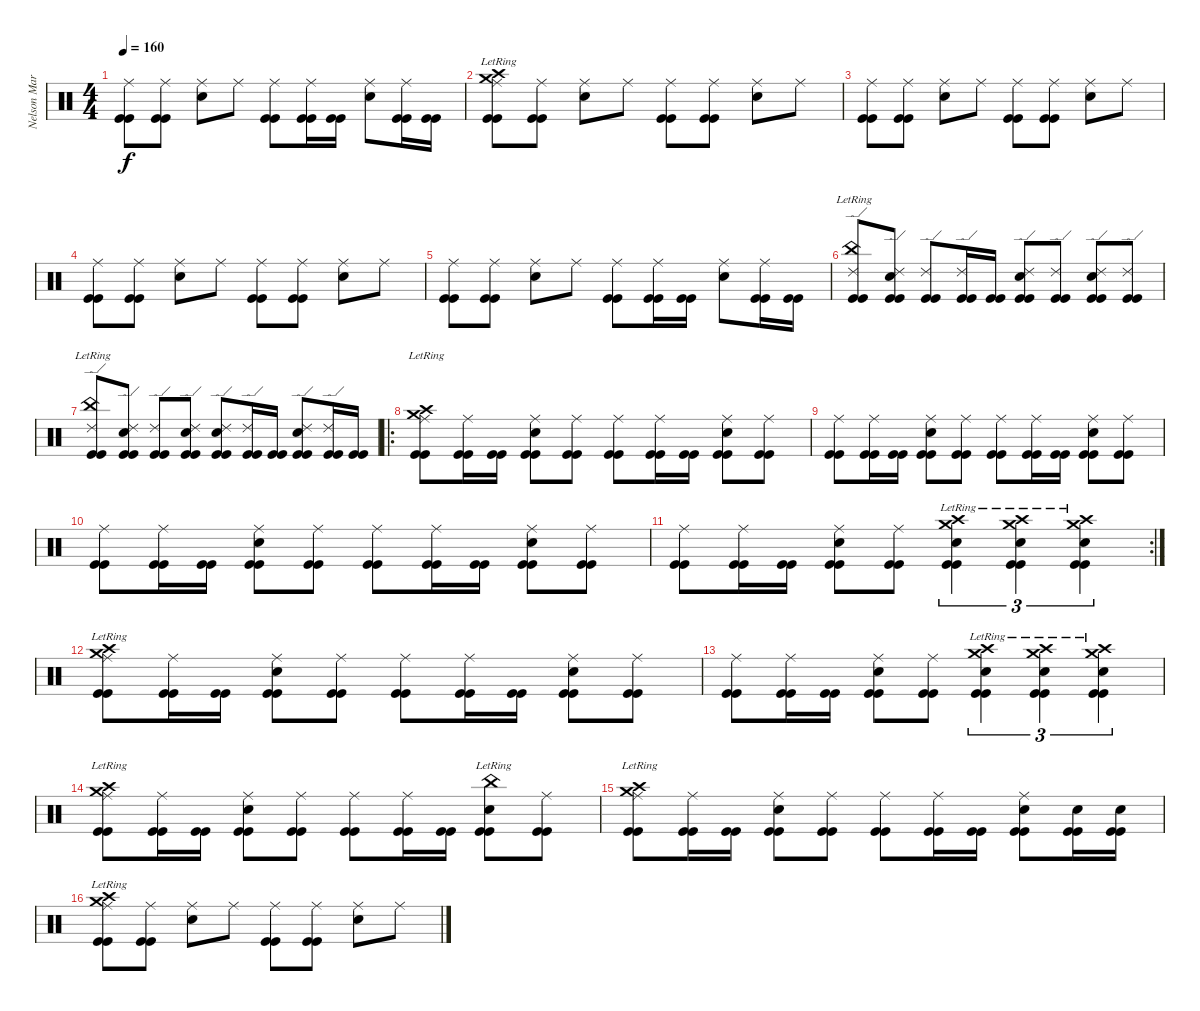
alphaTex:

\track ("Nelson Maria" "Nelson Mar") {instrument percussion}
\staff {score}
\articulation defaults
\ts (4 4)
\tempo 160
\clef neutral
\ks c
("Ride (middle)" "Kick (hit)" "Kick (hit)").8{dy f} ("Ride (middle)" "Kick (hit)" "Kick (hit)").8 ("Snare (hit) 2" "Ride (middle)").8 "Ride (middle)".8 ("Ride (middle)" "Kick (hit)" "Kick (hit)").8 ("Ride (middle)" "Kick (hit)" "Kick (hit)").16 ("Kick (hit)" "Kick (hit)").16 ("Snare (hit) 2" "Ride (middle)").8 ("Ride (middle)" "Kick (hit)" "Kick (hit)").16 ("Kick (hit)" "Kick (hit)").16 |
("Crash high (hit)"{lr} "Crash medium (hit)"{lr} "Ride (middle)" "Kick (hit)" "Kick (hit)").8 ("Ride (middle)" "Kick (hit)" "Kick (hit)").8 ("Snare (hit) 2" "Ride (middle)").8 "Ride (middle)".8 ("Ride (middle)" "Kick (hit)" "Kick (hit)").8 ("Ride (middle)" "Kick (hit)" "Kick (hit)").8 ("Snare (hit) 2" "Ride (middle)").8 "Ride (middle)".8 |
("Ride (middle)" "Kick (hit)" "Kick (hit)").8 ("Ride (middle)" "Kick (hit)" "Kick (hit)").8 ("Snare (hit) 2" "Ride (middle)").8 "Ride (middle)".8 ("Ride (middle)" "Kick (hit)" "Kick (hit)").8 ("Ride (middle)" "Kick (hit)" "Kick (hit)").8 ("Snare (hit) 2" "Ride (middle)").8 "Ride (middle)".8 |
("Ride (middle)" "Kick (hit)" "Kick (hit)").8 ("Ride (middle)" "Kick (hit)" "Kick (hit)").8 ("Snare (hit) 2" "Ride (middle)").8 "Ride (middle)".8 ("Ride (middle)" "Kick (hit)" "Kick (hit)").8 ("Ride (middle)" "Kick (hit)" "Kick (hit)").8 ("Snare (hit) 2" "Ride (middle)").8 "Ride (middle)".8 |
("Ride (middle)" "Kick (hit)" "Kick (hit)").8 ("Ride (middle)" "Kick (hit)" "Kick (hit)").8 ("Snare (hit) 2" "Ride (middle)").8 "Ride (middle)".8 ("Ride (middle)" "Kick (hit)" "Kick (hit)").8 ("Ride (middle)" "Kick (hit)" "Kick (hit)").16 ("Kick (hit)" "Kick (hit)").16 ("Snare (hit) 2" "Ride (middle)").8 ("Ride (middle)" "Kick (hit)" "Kick (hit)").16 ("Kick (hit)" "Kick (hit)").16 |
("China (hit)"{lr} "Ride (edge) 2" "Kick (hit)" "Kick (hit)").8 ("Snare (hit) 2" "Ride (edge) 2" "Kick (hit)" "Kick (hit)").8 ("Ride (edge) 2" "Kick (hit)" "Kick (hit)").8 ("Ride (edge) 2" "Kick (hit)" "Kick (hit)").16 ("Kick (hit)" "Kick (hit)").16 ("Snare (hit) 2" "Ride (edge) 2" "Kick (hit)" "Kick (hit)").8 ("Ride (edge) 2" "Kick (hit)" "Kick (hit)").8 ("Snare (hit) 2" "Ride (edge) 2" "Kick (hit)" "Kick (hit)").8 ("Ride (edge) 2" "Kick (hit)" "Kick (hit)").8 |
("China (hit)"{lr} "Ride (edge) 2" "Kick (hit)" "Kick (hit)").8 ("Snare (hit) 2" "Ride (edge) 2" "Kick (hit)" "Kick (hit)").8 ("Ride (edge) 2" "Kick (hit)" "Kick (hit)").8 ("Snare (hit) 2" "Ride (edge) 2" "Kick (hit)" "Kick (hit)").8 ("Snare (hit) 2" "Ride (edge) 2" "Kick (hit)" "Kick (hit)").8 ("Ride (edge) 2" "Kick (hit)" "Kick (hit)").16 ("Kick (hit)" "Kick (hit)").16 ("Snare (hit) 2" "Ride (edge) 2" "Kick (hit)" "Kick (hit)").8 ("Ride (edge) 2" "Kick (hit)" "Kick (hit)").16 ("Kick (hit)" "Kick (hit)").16 |
\ro
("Crash high (hit)"{lr} "Crash medium (hit)"{lr} "Ride (middle)" "Kick (hit)" "Kick (hit)").8 ("Ride (middle)" "Kick (hit)" "Kick (hit)").16 ("Kick (hit)" "Kick (hit)").16 ("Snare (hit) 2" "Ride (middle)" "Kick (hit)" "Kick (hit)").8 ("Ride (middle)" "Kick (hit)" "Kick (hit)").8 ("Ride (middle)" "Kick (hit)" "Kick (hit)").8 ("Ride (middle)" "Kick (hit)" "Kick (hit)").16 ("Kick (hit)" "Kick (hit)").16 ("Snare (hit) 2" "Ride (middle)" "Kick (hit)" "Kick (hit)").8 ("Ride (middle)" "Kick (hit)" "Kick (hit)").8 |
("Ride (middle)" "Kick (hit)" "Kick (hit)").8 ("Ride (middle)" "Kick (hit)" "Kick (hit)").16 ("Kick (hit)" "Kick (hit)").16 ("Snare (hit) 2" "Ride (middle)" "Kick (hit)" "Kick (hit)").8 ("Ride (middle)" "Kick (hit)" "Kick (hit)").8 ("Ride (middle)" "Kick (hit)" "Kick (hit)").8 ("Ride (middle)" "Kick (hit)" "Kick (hit)").16 ("Kick (hit)" "Kick (hit)").16 ("Snare (hit) 2" "Ride (middle)" "Kick (hit)" "Kick (hit)").8 ("Ride (middle)" "Kick (hit)" "Kick (hit)").8 |
("Ride (middle)" "Kick (hit)" "Kick (hit)").8 ("Ride (middle)" "Kick (hit)" "Kick (hit)").16 ("Kick (hit)" "Kick (hit)").16 ("Snare (hit) 2" "Ride (middle)" "Kick (hit)" "Kick (hit)").8 ("Ride (middle)" "Kick (hit)" "Kick (hit)").8 ("Ride (middle)" "Kick (hit)" "Kick (hit)").8 ("Ride (middle)" "Kick (hit)" "Kick (hit)").16 ("Kick (hit)" "Kick (hit)").16 ("Snare (hit) 2" "Ride (middle)" "Kick (hit)" "Kick (hit)").8 ("Ride (middle)" "Kick (hit)" "Kick (hit)").8 |
\rc 2
("Ride (middle)" "Kick (hit)" "Kick (hit)").8 ("Ride (middle)" "Kick (hit)" "Kick (hit)").16 ("Kick (hit)" "Kick (hit)").16 ("Snare (hit) 2" "Ride (middle)" "Kick (hit)" "Kick (hit)").8 ("Ride (middle)" "Kick (hit)" "Kick (hit)").8 ("Crash high (hit)"{lr} "Crash medium (hit)"{lr} "Snare (hit) 2" "Kick (hit)" "Kick (hit)").4{tu (3 2)} ("Crash high (hit)"{lr} "Crash medium (hit)"{lr} "Snare (hit) 2" "Kick (hit)" "Kick (hit)").4{tu (3 2)} ("Crash high (hit)"{lr} "Crash medium (hit)"{lr} "Snare (hit) 2" "Kick (hit)" "Kick (hit)").4{tu (3 2)} |
("Crash high (hit)"{lr} "Crash medium (hit)"{lr} "Ride (middle)" "Kick (hit)" "Kick (hit)").8 ("Ride (middle)" "Kick (hit)" "Kick (hit)").16 ("Kick (hit)" "Kick (hit)").16 ("Snare (hit) 2" "Ride (middle)" "Kick (hit)" "Kick (hit)").8 ("Ride (middle)" "Kick (hit)" "Kick (hit)").8 ("Ride (middle)" "Kick (hit)" "Kick (hit)").8 ("Ride (middle)" "Kick (hit)" "Kick (hit)").16 ("Kick (hit)" "Kick (hit)").16 ("Snare (hit) 2" "Ride (middle)" "Kick (hit)" "Kick (hit)").8 ("Ride (middle)" "Kick (hit)" "Kick (hit)").8 |
("Ride (middle)" "Kick (hit)" "Kick (hit)").8 ("Ride (middle)" "Kick (hit)" "Kick (hit)").16 ("Kick (hit)" "Kick (hit)").16 ("Snare (hit) 2" "Ride (middle)" "Kick (hit)" "Kick (hit)").8 ("Ride (middle)" "Kick (hit)" "Kick (hit)").8 ("Crash high (hit)"{lr} "Crash medium (hit)"{lr} "Snare (hit) 2" "Kick (hit)" "Kick (hit)").4{tu (3 2)} ("Crash high (hit)"{lr} "Crash medium (hit)"{lr} "Snare (hit) 2" "Kick (hit)" "Kick (hit)").4{tu (3 2)} ("Crash high (hit)"{lr} "Crash medium (hit)"{lr} "Snare (hit) 2" "Kick (hit)" "Kick (hit)").4{tu (3 2)} |
("Crash high (hit)"{lr} "Crash medium (hit)"{lr} "Ride (middle)" "Kick (hit)" "Kick (hit)").8 ("Ride (middle)" "Kick (hit)" "Kick (hit)").16 ("Kick (hit)" "Kick (hit)").16 ("Snare (hit) 2" "Ride (middle)" "Kick (hit)" "Kick (hit)").8 ("Ride (middle)" "Kick (hit)" "Kick (hit)").8 ("Ride (middle)" "Kick (hit)" "Kick (hit)").8 ("Ride (middle)" "Kick (hit)" "Kick (hit)").16 ("Kick (hit)" "Kick (hit)").16 ("China (hit)"{lr} "Snare (hit) 2" "Kick (hit)" "Kick (hit)").8 ("Ride (middle)" "Kick (hit)" "Kick (hit)").8 |
("Crash high (hit)"{lr} "Crash medium (hit)"{lr} "Ride (middle)" "Kick (hit)" "Kick (hit)").8 ("Ride (middle)" "Kick (hit)" "Kick (hit)").16 ("Kick (hit)" "Kick (hit)").16 ("Snare (hit) 2" "Ride (middle)" "Kick (hit)" "Kick (hit)").8 ("Ride (middle)" "Kick (hit)" "Kick (hit)").8 ("Ride (middle)" "Kick (hit)" "Kick (hit)").8 ("Ride (middle)" "Kick (hit)" "Kick (hit)").16 ("Kick (hit)" "Kick (hit)").16 ("Snare (hit) 2" "Ride (middle)" "Kick (hit)" "Kick (hit)").8 ("Snare (hit) 2" "Kick (hit)" "Kick (hit)").16 ("Snare (hit) 2" "Kick (hit)" "Kick (hit)").16 |
("Crash high (hit)"{lr} "Crash medium (hit)"{lr} "Ride (middle)" "Kick (hit)" "Kick (hit)").8 ("Ride (middle)" "Kick (hit)" "Kick (hit)").8 ("Snare (hit) 2" "Ride (middle)").8 "Ride (middle)".8 ("Ride (middle)" "Kick (hit)" "Kick (hit)").8 ("Ride (middle)" "Kick (hit)" "Kick (hit)").8 ("Snare (hit) 2" "Ride (middle)").8 "Ride (middle)".8
